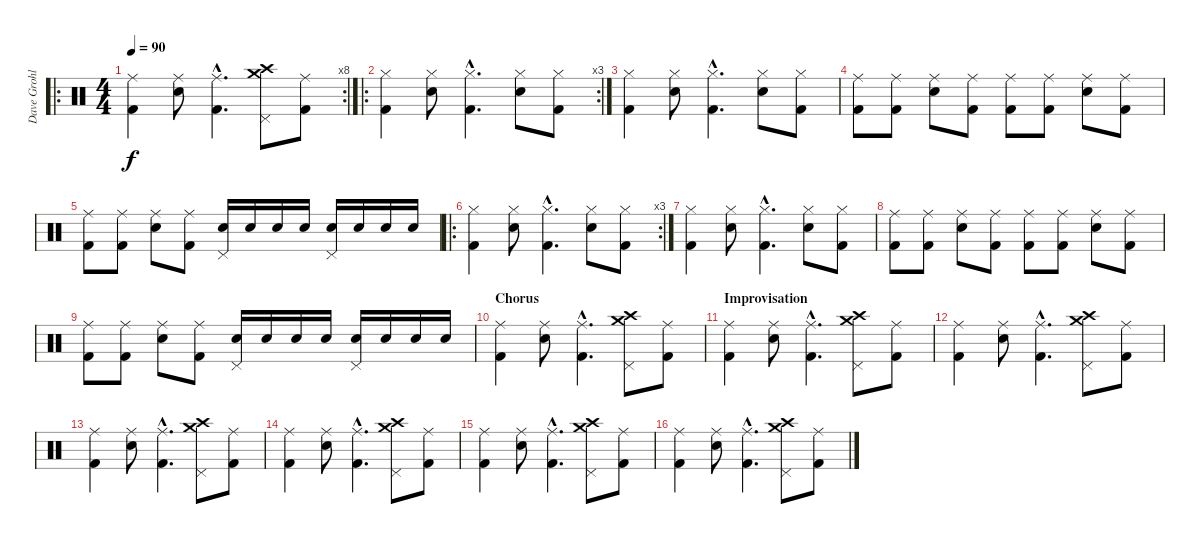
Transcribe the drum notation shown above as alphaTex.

\track ("Dave Grohl" "Dave Grohl") {instrument percussion}
\staff {score}
\articulation defaults
\ro
\rc 8
\ts (4 4)
\tempo 90
\clef neutral
\ks c
("Ride (middle)" "Kick (hit) 2").4{dy f} ("Ride (middle)" "Electric Snare (hit)").8 ("Ride (middle)"{hac} "Kick (hit) 2"{hac}).4{d} ("Pedal Hi-Hat (hit)" "Crash high (hit)" "Crash medium (hit)").8 ("Ride (middle)" "Kick (hit) 2").8 |
\ro
\rc 3
("Hi-Hat (closed)" "Kick (hit) 2").4 ("Hi-Hat (closed)" "Electric Snare (hit)").8 ("Hi-Hat (closed)"{hac} "Kick (hit) 2"{hac}).4{d} ("Hi-Hat (closed)" "Electric Snare (hit)").8 ("Hi-Hat (closed)" "Kick (hit) 2").8 |
("Hi-Hat (closed)" "Kick (hit) 2").4 ("Hi-Hat (closed)" "Electric Snare (hit)").8 ("Hi-Hat (closed)"{hac} "Kick (hit) 2"{hac}).4{d} ("Hi-Hat (closed)" "Electric Snare (hit)").8 ("Hi-Hat (closed)" "Kick (hit) 2").8 |
("Ride (middle)" "Kick (hit) 2").8 ("Ride (middle)" "Kick (hit) 2").8 ("Ride (middle)" "Electric Snare (hit)").8 ("Ride (middle)" "Kick (hit) 2").8 ("Ride (middle)" "Kick (hit) 2").8 ("Ride (middle)" "Kick (hit) 2").8 ("Ride (middle)" "Electric Snare (hit)").8 ("Ride (middle)" "Kick (hit) 2").8 |
("Ride (middle)" "Kick (hit) 2").8 ("Ride (middle)" "Kick (hit) 2").8 ("Ride (middle)" "Electric Snare (hit)").8 ("Ride (middle)" "Kick (hit) 2").8 ("Pedal Hi-Hat (hit)" "Electric Snare (hit)").16 "Electric Snare (hit)".16 "Electric Snare (hit)".16 "Electric Snare (hit)".16 ("Pedal Hi-Hat (hit)" "Electric Snare (hit)").16 "Electric Snare (hit)".16 "Electric Snare (hit)".16 "Electric Snare (hit)".16 |
\ro
\rc 3
("Hi-Hat (closed)" "Kick (hit) 2").4 ("Hi-Hat (closed)" "Electric Snare (hit)").8 ("Hi-Hat (closed)"{hac} "Kick (hit) 2"{hac}).4{d} ("Hi-Hat (closed)" "Electric Snare (hit)").8 ("Hi-Hat (closed)" "Kick (hit) 2").8 |
("Hi-Hat (closed)" "Kick (hit) 2").4 ("Hi-Hat (closed)" "Electric Snare (hit)").8 ("Hi-Hat (closed)"{hac} "Kick (hit) 2"{hac}).4{d} ("Hi-Hat (closed)" "Electric Snare (hit)").8 ("Hi-Hat (closed)" "Kick (hit) 2").8 |
("Ride (middle)" "Kick (hit) 2").8 ("Ride (middle)" "Kick (hit) 2").8 ("Ride (middle)" "Electric Snare (hit)").8 ("Ride (middle)" "Kick (hit) 2").8 ("Ride (middle)" "Kick (hit) 2").8 ("Ride (middle)" "Kick (hit) 2").8 ("Ride (middle)" "Electric Snare (hit)").8 ("Ride (middle)" "Kick (hit) 2").8 |
("Ride (middle)" "Kick (hit) 2").8 ("Ride (middle)" "Kick (hit) 2").8 ("Ride (middle)" "Electric Snare (hit)").8 ("Ride (middle)" "Kick (hit) 2").8 ("Pedal Hi-Hat (hit)" "Electric Snare (hit)").16 "Electric Snare (hit)".16 "Electric Snare (hit)".16 "Electric Snare (hit)".16 ("Pedal Hi-Hat (hit)" "Electric Snare (hit)").16 "Electric Snare (hit)".16 "Electric Snare (hit)".16 "Electric Snare (hit)".16 |
\section ("" "Chorus")
("Ride (middle)" "Kick (hit) 2").4 ("Ride (middle)" "Electric Snare (hit)").8 ("Ride (middle)"{hac} "Kick (hit) 2"{hac}).4{d} ("Pedal Hi-Hat (hit)" "Crash high (hit)" "Crash medium (hit)").8 ("Ride (middle)" "Kick (hit) 2").8 |
\section ("" "Improvisation")
("Ride (middle)" "Kick (hit) 2").4 ("Ride (middle)" "Electric Snare (hit)").8 ("Ride (middle)"{hac} "Kick (hit) 2"{hac}).4{d} ("Pedal Hi-Hat (hit)" "Crash high (hit)" "Crash medium (hit)").8 ("Ride (middle)" "Kick (hit) 2").8 |
("Ride (middle)" "Kick (hit) 2").4 ("Ride (middle)" "Electric Snare (hit)").8 ("Ride (middle)"{hac} "Kick (hit) 2"{hac}).4{d} ("Pedal Hi-Hat (hit)" "Crash high (hit)" "Crash medium (hit)").8 ("Ride (middle)" "Kick (hit) 2").8 |
("Ride (middle)" "Kick (hit) 2").4 ("Ride (middle)" "Electric Snare (hit)").8 ("Ride (middle)"{hac} "Kick (hit) 2"{hac}).4{d} ("Pedal Hi-Hat (hit)" "Crash high (hit)" "Crash medium (hit)").8 ("Ride (middle)" "Kick (hit) 2").8 |
("Ride (middle)" "Kick (hit) 2").4 ("Ride (middle)" "Electric Snare (hit)").8 ("Ride (middle)"{hac} "Kick (hit) 2"{hac}).4{d} ("Pedal Hi-Hat (hit)" "Crash high (hit)" "Crash medium (hit)").8 ("Ride (middle)" "Kick (hit) 2").8 |
("Ride (middle)" "Kick (hit) 2").4 ("Ride (middle)" "Electric Snare (hit)").8 ("Ride (middle)"{hac} "Kick (hit) 2"{hac}).4{d} ("Pedal Hi-Hat (hit)" "Crash high (hit)" "Crash medium (hit)").8 ("Ride (middle)" "Kick (hit) 2").8 |
("Ride (middle)" "Kick (hit) 2").4 ("Ride (middle)" "Electric Snare (hit)").8 ("Ride (middle)"{hac} "Kick (hit) 2"{hac}).4{d} ("Pedal Hi-Hat (hit)" "Crash high (hit)" "Crash medium (hit)").8 ("Ride (middle)" "Kick (hit) 2").8
